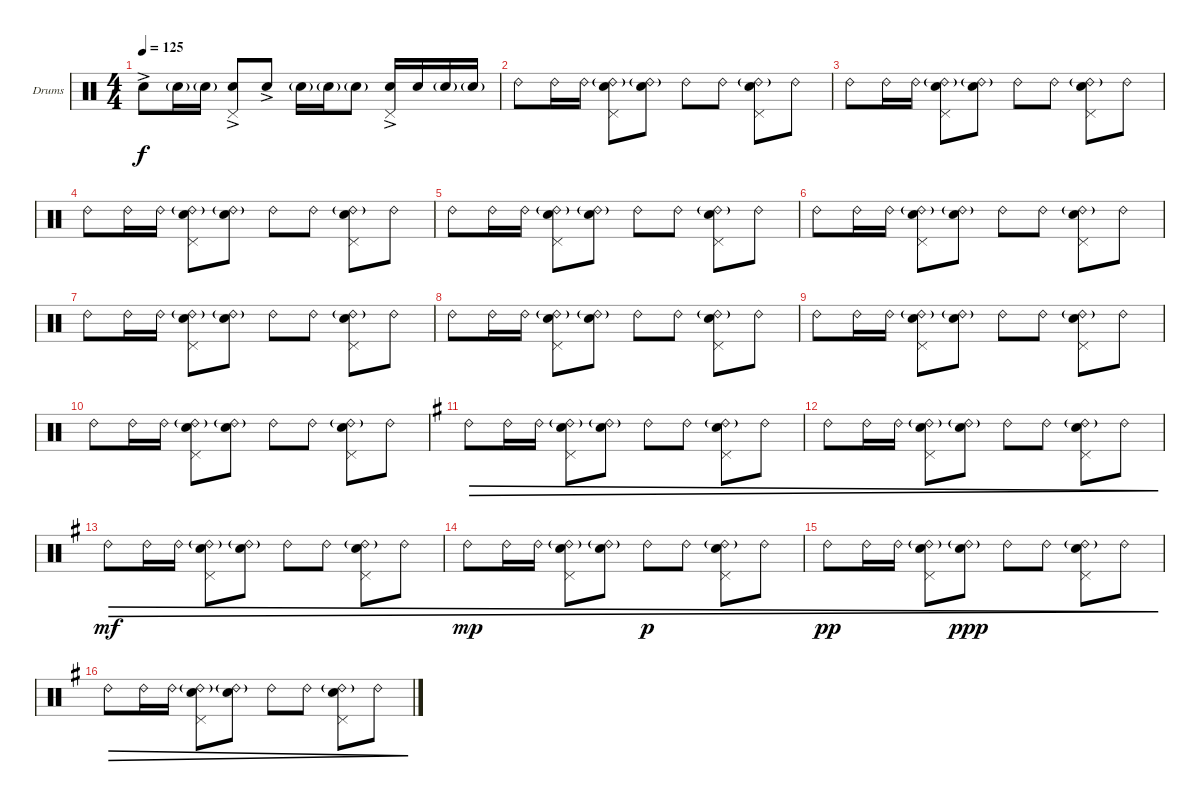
\defaultSystemsLayout 4
\bracketExtendMode groupsimilarinstruments
\firstSystemTrackNameOrientation horizontal
\otherSystemsTrackNameOrientation horizontal
\track ("Drums" "Drums") {instrument percussion}
\staff {score}
\articulation defaults
\ts (4 4)
\tempo 125
\clef neutral
\scale
0.333333
\ks c "Snare (hit) 2"{ac}.8{dy f} "Snare (hit) 2"{g}.16 "Snare (hit) 2"{g}.16
("Snare (hit) 2"{ac} "Pedal Hi-Hat (hit)").8 "Snare (hit) 2"{ac}.8 "Snare (hit) 2"{g}.16 "Snare (hit) 2"{g}.16 "Snare (hit) 2"{g}.8 ("Snare (hit) 2"{ac} "Pedal Hi-Hat (hit)").16 "Snare (hit) 2".16 "Snare (hit) 2"{g}.16 "Snare (hit) 2"{g}.16 |
\scale
0.333333 "Ride (bell) 2".8 "Ride (bell) 2".16 "Ride (bell) 2".16 ("Ride (bell) 2"{g} "Snare (hit) 2" "Pedal Hi-Hat (hit)").8 ("Snare (hit) 2" "Ride (bell) 2"{g}).8 "Ride (bell) 2".8 "Ride (bell) 2".8 ("Ride (bell) 2"{g} "Snare (hit) 2" "Pedal Hi-Hat (hit)").8 "Ride (bell) 2".8 |
\scale
0.333333 "Ride (bell) 2".8 "Ride (bell) 2".16 "Ride (bell) 2".16 ("Ride (bell) 2"{g} "Snare (hit) 2" "Pedal Hi-Hat (hit)").8 ("Snare (hit) 2" "Ride (bell) 2"{g}).8 "Ride (bell) 2".8 "Ride (bell) 2".8 ("Ride (bell) 2"{g} "Snare (hit) 2" "Pedal Hi-Hat (hit)").8 "Ride (bell) 2".8 |
\scale
0.333333 "Ride (bell) 2".8 "Ride (bell) 2".16 "Ride (bell) 2".16 ("Ride (bell) 2"{g} "Snare (hit) 2" "Pedal Hi-Hat (hit)").8 ("Snare (hit) 2" "Ride (bell) 2"{g}).8 "Ride (bell) 2".8 "Ride (bell) 2".8 ("Ride (bell) 2"{g} "Snare (hit) 2" "Pedal Hi-Hat (hit)").8 "Ride (bell) 2".8 |
\scale
0.333333 "Ride (bell) 2".8 "Ride (bell) 2".16 "Ride (bell) 2".16 ("Ride (bell) 2"{g} "Snare (hit) 2" "Pedal Hi-Hat (hit)").8 ("Snare (hit) 2" "Ride (bell) 2"{g}).8 "Ride (bell) 2".8 "Ride (bell) 2".8 ("Ride (bell) 2"{g} "Snare (hit) 2" "Pedal Hi-Hat (hit)").8 "Ride (bell) 2".8 |
\scale
0.333333 "Ride (bell) 2".8 "Ride (bell) 2".16 "Ride (bell) 2".16 ("Ride (bell) 2"{g} "Snare (hit) 2" "Pedal Hi-Hat (hit)").8 ("Snare (hit) 2" "Ride (bell) 2"{g}).8 "Ride (bell) 2".8 "Ride (bell) 2".8 ("Ride (bell) 2"{g} "Snare (hit) 2" "Pedal Hi-Hat (hit)").8 "Ride (bell) 2".8 |
\scale
0.333333 "Ride (bell) 2".8 "Ride (bell) 2".16 "Ride (bell) 2".16 ("Ride (bell) 2"{g} "Snare (hit) 2" "Pedal Hi-Hat (hit)").8 ("Snare (hit) 2" "Ride (bell) 2"{g}).8 "Ride (bell) 2".8 "Ride (bell) 2".8 ("Ride (bell) 2"{g} "Snare (hit) 2" "Pedal Hi-Hat (hit)").8 "Ride (bell) 2".8 |
\scale
0.333333 "Ride (bell) 2".8 "Ride (bell) 2".16 "Ride (bell) 2".16 ("Ride (bell) 2"{g} "Snare (hit) 2" "Pedal Hi-Hat (hit)").8 ("Snare (hit) 2" "Ride (bell) 2"{g}).8 "Ride (bell) 2".8 "Ride (bell) 2".8 ("Ride (bell) 2"{g} "Snare (hit) 2" "Pedal Hi-Hat (hit)").8 "Ride (bell) 2".8 |
\scale
0.333333 "Ride (bell) 2".8 "Ride (bell) 2".16 "Ride (bell) 2".16 ("Ride (bell) 2"{g} "Snare (hit) 2" "Pedal Hi-Hat (hit)").8 ("Snare (hit) 2" "Ride (bell) 2"{g}).8 "Ride (bell) 2".8 "Ride (bell) 2".8 ("Ride (bell) 2"{g} "Snare (hit) 2" "Pedal Hi-Hat (hit)").8 "Ride (bell) 2".8 |
\scale
0.333333 "Ride (bell) 2".8 "Ride (bell) 2".16 "Ride (bell) 2".16 ("Ride (bell) 2"{g} "Snare (hit) 2" "Pedal Hi-Hat (hit)").8 ("Snare (hit) 2" "Ride (bell) 2"{g}).8 "Ride (bell) 2".8 "Ride (bell) 2".8 ("Ride (bell) 2"{g} "Snare (hit) 2" "Pedal Hi-Hat (hit)").8 "Ride (bell) 2".8 |
\scale
0.333333
\ks g "Ride (bell) 2".8{dec} "Ride (bell) 2".16{dec} "Ride (bell) 2".16{dec}
("Ride (bell) 2"{g} "Snare (hit) 2" "Pedal Hi-Hat (hit)").8{dec} ("Snare (hit) 2" "Ride (bell) 2"{g}).8{dec} "Ride (bell) 2".8{dec} "Ride (bell) 2".8{dec} ("Ride (bell) 2"{g} "Snare (hit) 2" "Pedal Hi-Hat (hit)").8{dec} "Ride (bell) 2".8{dec} |
\scale
0.333333 "Ride (bell) 2".8{dec} "Ride (bell) 2".16{dec} "Ride (bell) 2".16{dec} ("Ride (bell) 2"{g} "Snare (hit) 2" "Pedal Hi-Hat (hit)").8{dec} ("Snare (hit) 2" "Ride (bell) 2"{g}).8{dec} "Ride (bell) 2".8{dec} "Ride (bell) 2".8{dec} ("Ride (bell) 2"{g} "Snare (hit) 2" "Pedal Hi-Hat (hit)").8{dec} "Ride (bell) 2".8{dec} |
\scale
0.333333 "Ride (bell) 2".8{dec dy mf} "Ride (bell) 2".16{dec} "Ride (bell) 2".16{dec} ("Ride (bell) 2"{g} "Snare (hit) 2" "Pedal Hi-Hat (hit)").8{dec} ("Snare (hit) 2" "Ride (bell) 2"{g}).8{dec} "Ride (bell) 2".8{dec} "Ride (bell) 2".8{dec} ("Ride (bell) 2"{g} "Snare (hit) 2" "Pedal Hi-Hat (hit)").8{dec} "Ride (bell) 2".8{dec} |
\scale
0.333333 "Ride (bell) 2".8{dec dy mp} "Ride (bell) 2".16{dec} "Ride (bell) 2".16{dec} ("Ride (bell) 2"{g} "Snare (hit) 2" "Pedal Hi-Hat (hit)").8{dec} ("Snare (hit) 2" "Ride (bell) 2"{g}).8{dec} "Ride (bell) 2".8{dec dy p} "Ride (bell) 2".8{dec} ("Ride (bell) 2"{g} "Snare (hit) 2" "Pedal Hi-Hat (hit)").8{dec} "Ride (bell) 2".8{dec} |
\scale
0.333333 "Ride (bell) 2".8{dec dy pp} "Ride (bell) 2".16{dec} "Ride (bell) 2".16{dec} ("Ride (bell) 2"{g} "Snare (hit) 2" "Pedal Hi-Hat (hit)").8{dec} ("Snare (hit) 2" "Ride (bell) 2"{g}).8{dec dy ppp} "Ride (bell) 2".8{dec} "Ride (bell) 2".8{dec} ("Ride (bell) 2"{g} "Snare (hit) 2" "Pedal Hi-Hat (hit)").8{dec} "Ride (bell) 2".8{dec} |
"Ride (bell) 2".8{dec} "Ride (bell) 2".16{dec} "Ride (bell) 2".16{dec} ("Ride (bell) 2"{g} "Snare (hit) 2" "Pedal Hi-Hat (hit)").8{dec} ("Snare (hit) 2" "Ride (bell) 2"{g}).8{dec} "Ride (bell) 2".8{dec} "Ride (bell) 2".8{dec} ("Ride (bell) 2"{g} "Snare (hit) 2" "Pedal Hi-Hat (hit)").8{dec} "Ride (bell) 2".8{dec}
